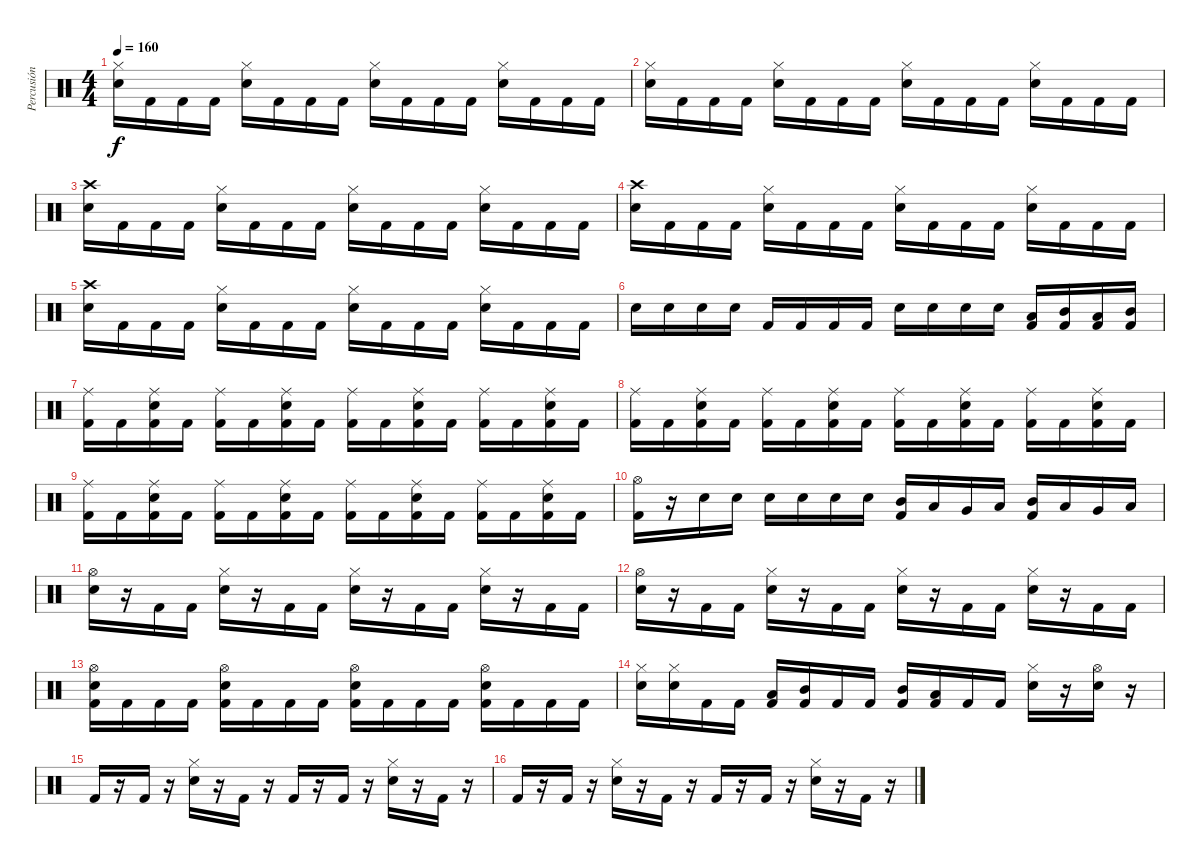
\track ("Percusión" "Percusión") {instrument percussion}
\staff {score}
\articulation defaults
\ts (4 4)
\tempo 160
\clef neutral
\ks c
("Hi-Hat (closed)" "Snare (hit) 2").16{dy f} "Kick (hit) 2".16 "Kick (hit) 2".16 "Kick (hit) 2".16 ("Hi-Hat (closed)" "Snare (hit) 2").16 "Kick (hit) 2".16 "Kick (hit) 2".16 "Kick (hit) 2".16 ("Hi-Hat (closed)" "Snare (hit) 2").16 "Kick (hit) 2".16 "Kick (hit) 2".16 "Kick (hit) 2".16 ("Hi-Hat (closed)" "Snare (hit) 2").16 "Kick (hit) 2".16 "Kick (hit) 2".16 "Kick (hit) 2".16 |
("Hi-Hat (closed)" "Snare (hit) 2").16 "Kick (hit) 2".16 "Kick (hit) 2".16 "Kick (hit) 2".16 ("Hi-Hat (closed)" "Snare (hit) 2").16 "Kick (hit) 2".16 "Kick (hit) 2".16 "Kick (hit) 2".16 ("Hi-Hat (closed)" "Snare (hit) 2").16 "Kick (hit) 2".16 "Kick (hit) 2".16 "Kick (hit) 2".16 ("Hi-Hat (closed)" "Snare (hit) 2").16 "Kick (hit) 2".16 "Kick (hit) 2".16 "Kick (hit) 2".16 |
("Crash high (hit)" "Snare (hit) 2").16 "Kick (hit) 2".16 "Kick (hit) 2".16 "Kick (hit) 2".16 ("Hi-Hat (closed)" "Snare (hit) 2").16 "Kick (hit) 2".16 "Kick (hit) 2".16 "Kick (hit) 2".16 ("Hi-Hat (closed)" "Snare (hit) 2").16 "Kick (hit) 2".16 "Kick (hit) 2".16 "Kick (hit) 2".16 ("Hi-Hat (closed)" "Snare (hit) 2").16 "Kick (hit) 2".16 "Kick (hit) 2".16 "Kick (hit) 2".16 |
("Crash high (hit)" "Snare (hit) 2").16 "Kick (hit) 2".16 "Kick (hit) 2".16 "Kick (hit) 2".16 ("Hi-Hat (closed)" "Snare (hit) 2").16 "Kick (hit) 2".16 "Kick (hit) 2".16 "Kick (hit) 2".16 ("Hi-Hat (closed)" "Snare (hit) 2").16 "Kick (hit) 2".16 "Kick (hit) 2".16 "Kick (hit) 2".16 ("Hi-Hat (closed)" "Snare (hit) 2").16 "Kick (hit) 2".16 "Kick (hit) 2".16 "Kick (hit) 2".16 |
("Crash high (hit)" "Snare (hit) 2").16 "Kick (hit) 2".16 "Kick (hit) 2".16 "Kick (hit) 2".16 ("Hi-Hat (closed)" "Snare (hit) 2").16 "Kick (hit) 2".16 "Kick (hit) 2".16 "Kick (hit) 2".16 ("Hi-Hat (closed)" "Snare (hit) 2").16 "Kick (hit) 2".16 "Kick (hit) 2".16 "Kick (hit) 2".16 ("Hi-Hat (closed)" "Snare (hit) 2").16 "Kick (hit) 2".16 "Kick (hit) 2".16 "Kick (hit) 2".16 |
"Snare (hit) 2".16 "Snare (hit) 2".16 "Snare (hit) 2".16 "Snare (hit) 2".16 "Kick (hit) 2".16 "Kick (hit) 2".16 "Kick (hit) 2".16 "Kick (hit) 2".16 "Snare (hit) 2".16 "Snare (hit) 2".16 "Snare (hit) 2".16 "Snare (hit) 2".16 ("Low Tom (hit)" "Kick (hit) 2").16 ("Mid Tom (hit)" "Kick (hit) 2").16 ("Low Tom (hit)" "Kick (hit) 2").16 ("Mid Tom (hit)" "Kick (hit) 2").16 |
("Ride (middle)" "Kick (hit) 2").16 "Kick (hit) 2".16 ("Ride (middle)" "Snare (hit) 2" "Kick (hit) 2").16 "Kick (hit) 2".16 ("Ride (middle)" "Kick (hit) 2").16 "Kick (hit) 2".16 ("Ride (middle)" "Snare (hit) 2" "Kick (hit) 2").16 "Kick (hit) 2".16 ("Ride (middle)" "Kick (hit) 2").16 "Kick (hit) 2".16 ("Ride (middle)" "Snare (hit) 2" "Kick (hit) 2").16 "Kick (hit) 2".16 ("Ride (middle)" "Kick (hit) 2").16 "Kick (hit) 2".16 ("Ride (middle)" "Snare (hit) 2" "Kick (hit) 2").16 "Kick (hit) 2".16 |
("Ride (middle)" "Kick (hit) 2").16 "Kick (hit) 2".16 ("Ride (middle)" "Snare (hit) 2" "Kick (hit) 2").16 "Kick (hit) 2".16 ("Ride (middle)" "Kick (hit) 2").16 "Kick (hit) 2".16 ("Ride (middle)" "Snare (hit) 2" "Kick (hit) 2").16 "Kick (hit) 2".16 ("Ride (middle)" "Kick (hit) 2").16 "Kick (hit) 2".16 ("Ride (middle)" "Snare (hit) 2" "Kick (hit) 2").16 "Kick (hit) 2".16 ("Ride (middle)" "Kick (hit) 2").16 "Kick (hit) 2".16 ("Ride (middle)" "Snare (hit) 2" "Kick (hit) 2").16 "Kick (hit) 2".16 |
("Ride (middle)" "Kick (hit) 2").16 "Kick (hit) 2".16 ("Ride (middle)" "Snare (hit) 2" "Kick (hit) 2").16 "Kick (hit) 2".16 ("Ride (middle)" "Kick (hit) 2").16 "Kick (hit) 2".16 ("Ride (middle)" "Snare (hit) 2" "Kick (hit) 2").16 "Kick (hit) 2".16 ("Ride (middle)" "Kick (hit) 2").16 "Kick (hit) 2".16 ("Ride (middle)" "Snare (hit) 2" "Kick (hit) 2").16 "Kick (hit) 2".16 ("Ride (middle)" "Kick (hit) 2").16 "Kick (hit) 2".16 ("Ride (middle)" "Snare (hit) 2" "Kick (hit) 2").16 "Kick (hit) 2".16 |
("Hi-Hat (open)" "Kick (hit) 2").16 r.16 "Snare (hit) 2".16 "Snare (hit) 2".16 "Snare (hit) 2".16 "Snare (hit) 2".16 "Snare (hit) 2".16 "Snare (hit) 2".16 ("Mid Tom (hit)" "Kick (hit) 2").16 "Low Tom (hit)".16 "Very Low Tom (hit)".16 "Low Tom (hit)".16 ("Mid Tom (hit)" "Kick (hit) 2").16 "Low Tom (hit)".16 "Very Low Tom (hit)".16 "Low Tom (hit)".16 |
("Hi-Hat (open)" "Snare (hit) 2").16 r.16 "Kick (hit) 2".16 "Kick (hit) 2".16 ("Hi-Hat (closed)" "Snare (hit) 2").16 r.16 "Kick (hit) 2".16 "Kick (hit) 2".16 ("Hi-Hat (closed)" "Snare (hit) 2").16 r.16 "Kick (hit) 2".16 "Kick (hit) 2".16 ("Hi-Hat (closed)" "Snare (hit) 2").16 r.16 "Kick (hit) 2".16 "Kick (hit) 2".16 |
("Hi-Hat (open)" "Snare (hit) 2").16 r.16 "Kick (hit) 2".16 "Kick (hit) 2".16 ("Hi-Hat (closed)" "Snare (hit) 2").16 r.16 "Kick (hit) 2".16 "Kick (hit) 2".16 ("Hi-Hat (closed)" "Snare (hit) 2").16 r.16 "Kick (hit) 2".16 "Kick (hit) 2".16 ("Hi-Hat (closed)" "Snare (hit) 2").16 r.16 "Kick (hit) 2".16 "Kick (hit) 2".16 |
("Hi-Hat (open)" "Snare (hit) 2" "Kick (hit) 2").16 "Kick (hit) 2".16 "Kick (hit) 2".16 "Kick (hit) 2".16 ("Hi-Hat (open)" "Snare (hit) 2" "Kick (hit) 2").16 "Kick (hit) 2".16 "Kick (hit) 2".16 "Kick (hit) 2".16 ("Hi-Hat (open)" "Snare (hit) 2" "Kick (hit) 2").16 "Kick (hit) 2".16 "Kick (hit) 2".16 "Kick (hit) 2".16 ("Hi-Hat (open)" "Snare (hit) 2" "Kick (hit) 2").16 "Kick (hit) 2".16 "Kick (hit) 2".16 "Kick (hit) 2".16 |
("Hi-Hat (closed)" "Snare (hit) 2").16 ("Hi-Hat (closed)" "Snare (hit) 2").16 "Kick (hit) 2".16 "Kick (hit) 2".16 ("Low Tom (hit)" "Kick (hit) 2").16 ("Mid Tom (hit)" "Kick (hit) 2").16 "Kick (hit) 2".16 "Kick (hit) 2".16 ("Mid Tom (hit)" "Kick (hit) 2").16 ("Low Tom (hit)" "Kick (hit) 2").16 "Kick (hit) 2".16 "Kick (hit) 2".16 ("Hi-Hat (closed)" "Snare (hit) 2").16 r.16 ("Hi-Hat (open)" "Snare (hit) 2").16 r.16 |
"Kick (hit) 2".16 r.16 "Kick (hit) 2".16 r.16 ("Hi-Hat (closed)" "Snare (hit) 2").16 r.16 "Kick (hit) 2".16 r.16 "Kick (hit) 2".16 r.16 "Kick (hit) 2".16 r.16 ("Hi-Hat (closed)" "Snare (hit) 2").16 r.16 "Kick (hit) 2".16 r.16 |
"Kick (hit) 2".16 r.16 "Kick (hit) 2".16 r.16 ("Hi-Hat (closed)" "Snare (hit) 2").16 r.16 "Kick (hit) 2".16 r.16 "Kick (hit) 2".16 r.16 "Kick (hit) 2".16 r.16 ("Hi-Hat (closed)" "Snare (hit) 2").16 r.16 "Kick (hit) 2".16 r.16
